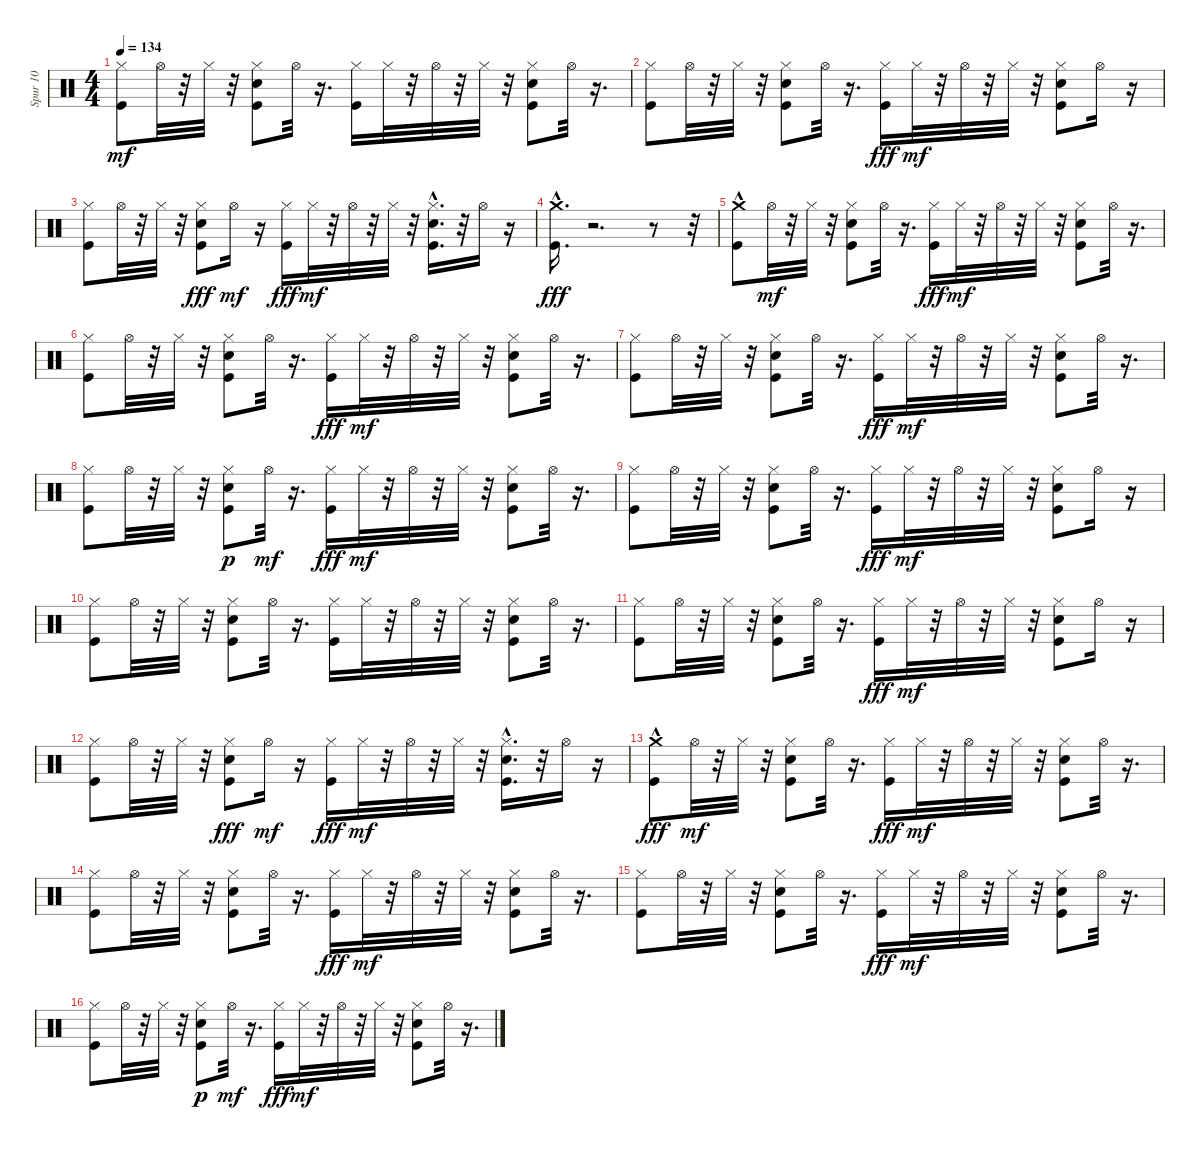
\track ("Spur 10" "Spur 10") {instrument percussion}
\staff {score}
\articulation defaults
\ts (4 4)
\tempo 134
\clef neutral
\ks c
("Kick (hit)" "Hi-Hat (closed)").8{dy mf} "Hi-Hat (open)".32 r.32 "Hi-Hat (closed)".32 r.32 ("Snare (hit) 2" "Kick (hit)" "Hi-Hat (closed)").8 "Hi-Hat (open)".32 r.16{d} ("Kick (hit)" "Hi-Hat (closed)").16 "Hi-Hat (closed)".32 r.32 "Hi-Hat (open)".32 r.32 "Hi-Hat (closed)".32 r.32 ("Snare (hit) 2" "Kick (hit)" "Hi-Hat (closed)").8 "Hi-Hat (open)".32 r.16{d} |
("Kick (hit)" "Hi-Hat (closed)").8 "Hi-Hat (open)".32 r.32 "Hi-Hat (closed)".32 r.32 ("Snare (hit) 2" "Kick (hit)" "Hi-Hat (closed)").8 "Hi-Hat (open)".32 r.16{d} ("Hi-Hat (closed)" "Kick (hit)").16{dy fff} "Hi-Hat (closed)".32{dy mf} r.32 "Hi-Hat (open)".32 r.32 "Hi-Hat (closed)".32 r.32 ("Snare (hit) 2" "Kick (hit)" "Hi-Hat (closed)").8 "Hi-Hat (open)".16 r.16 |
("Kick (hit)" "Hi-Hat (closed)").8 "Hi-Hat (open)".32 r.32 "Hi-Hat (closed)".32 r.32 ("Hi-Hat (closed)" "Snare (hit) 2" "Kick (hit)").8{dy fff} "Hi-Hat (open)".16{dy mf} r.16 ("Hi-Hat (closed)" "Kick (hit)").16{dy fff} "Hi-Hat (closed)".32{dy mf} r.32 "Hi-Hat (open)".32 r.32 "Hi-Hat (closed)".32 r.32 ("Snare (hit) 2" "Kick (hit)"{hac} "Hi-Hat (closed)").16{d} r.32 "Hi-Hat (open)".16 r.16 |
("Crash medium (hit)"{hac} "Kick (hit)"{hac}).16{d dy fff} r.2{d} r.8 r.32 |
("Crash medium (hit)"{hac} "Kick (hit)").8 "Hi-Hat (open)".32{dy mf} r.32 "Hi-Hat (closed)".32 r.32 ("Snare (hit) 2" "Kick (hit)" "Hi-Hat (closed)").8 "Hi-Hat (open)".32 r.16{d} ("Hi-Hat (closed)" "Kick (hit)").16{dy fff} "Hi-Hat (closed)".32{dy mf} r.32 "Hi-Hat (open)".32 r.32 "Hi-Hat (closed)".32 r.32 ("Snare (hit) 2" "Kick (hit)" "Hi-Hat (closed)").8 "Hi-Hat (open)".32 r.16{d} |
("Kick (hit)" "Hi-Hat (closed)").8 "Hi-Hat (open)".32 r.32 "Hi-Hat (closed)".32 r.32 ("Snare (hit) 2" "Kick (hit)" "Hi-Hat (closed)").8 "Hi-Hat (open)".32 r.16{d} ("Hi-Hat (closed)" "Kick (hit)").16{dy fff} "Hi-Hat (closed)".32{dy mf} r.32 "Hi-Hat (open)".32 r.32 "Hi-Hat (closed)".32 r.32 ("Kick (hit)" "Snare (hit) 2" "Hi-Hat (closed)").8 "Hi-Hat (open)".32 r.16{d} |
("Kick (hit)" "Hi-Hat (closed)").8 "Hi-Hat (open)".32 r.32 "Hi-Hat (closed)".32 r.32 ("Kick (hit)" "Snare (hit) 2" "Hi-Hat (closed)").8 "Hi-Hat (open)".32 r.16{d} ("Hi-Hat (closed)" "Kick (hit)").16{dy fff} "Hi-Hat (closed)".32{dy mf} r.32 "Hi-Hat (open)".32 r.32 "Hi-Hat (closed)".32 r.32 ("Snare (hit) 2" "Kick (hit)" "Hi-Hat (closed)").8 "Hi-Hat (open)".32 r.16{d} |
("Kick (hit)" "Hi-Hat (closed)").8 "Hi-Hat (open)".32 r.32 "Hi-Hat (closed)".32 r.32 ("Hi-Hat (closed)" "Kick (hit)" "Snare (hit) 2").8{dy p} "Hi-Hat (open)".32{dy mf} r.16{d} ("Hi-Hat (closed)" "Kick (hit)").16{dy fff} "Hi-Hat (closed)".32{dy mf} r.32 "Hi-Hat (open)".32 r.32 "Hi-Hat (closed)".32 r.32 ("Kick (hit)" "Snare (hit) 2" "Hi-Hat (closed)").8 "Hi-Hat (open)".32 r.16{d} |
("Kick (hit)" "Hi-Hat (closed)").8 "Hi-Hat (open)".32 r.32 "Hi-Hat (closed)".32 r.32 ("Snare (hit) 2" "Kick (hit)" "Hi-Hat (closed)").8 "Hi-Hat (open)".32 r.16{d} ("Hi-Hat (closed)" "Kick (hit)").16{dy fff} "Hi-Hat (closed)".32{dy mf} r.32 "Hi-Hat (open)".32 r.32 "Hi-Hat (closed)".32 r.32 ("Snare (hit) 2" "Kick (hit)" "Hi-Hat (closed)").8 "Hi-Hat (open)".16 r.16 |
("Kick (hit)" "Hi-Hat (closed)").8 "Hi-Hat (open)".32 r.32 "Hi-Hat (closed)".32 r.32 ("Snare (hit) 2" "Kick (hit)" "Hi-Hat (closed)").8 "Hi-Hat (open)".32 r.16{d} ("Kick (hit)" "Hi-Hat (closed)").16 "Hi-Hat (closed)".32 r.32 "Hi-Hat (open)".32 r.32 "Hi-Hat (closed)".32 r.32 ("Snare (hit) 2" "Kick (hit)" "Hi-Hat (closed)").8 "Hi-Hat (open)".32 r.16{d} |
("Kick (hit)" "Hi-Hat (closed)").8 "Hi-Hat (open)".32 r.32 "Hi-Hat (closed)".32 r.32 ("Snare (hit) 2" "Kick (hit)" "Hi-Hat (closed)").8 "Hi-Hat (open)".32 r.16{d} ("Hi-Hat (closed)" "Kick (hit)").16{dy fff} "Hi-Hat (closed)".32{dy mf} r.32 "Hi-Hat (open)".32 r.32 "Hi-Hat (closed)".32 r.32 ("Snare (hit) 2" "Kick (hit)" "Hi-Hat (closed)").8 "Hi-Hat (open)".16 r.16 |
("Kick (hit)" "Hi-Hat (closed)").8 "Hi-Hat (open)".32 r.32 "Hi-Hat (closed)".32 r.32 ("Hi-Hat (closed)" "Snare (hit) 2" "Kick (hit)").8{dy fff} "Hi-Hat (open)".16{dy mf} r.16 ("Hi-Hat (closed)" "Kick (hit)").16{dy fff} "Hi-Hat (closed)".32{dy mf} r.32 "Hi-Hat (open)".32 r.32 "Hi-Hat (closed)".32 r.32 ("Snare (hit) 2" "Kick (hit)"{hac} "Hi-Hat (closed)").16{d} r.32 "Hi-Hat (open)".16 r.16 |
("Crash medium (hit)"{hac} "Kick (hit)").8{dy fff} "Hi-Hat (open)".32{dy mf} r.32 "Hi-Hat (closed)".32 r.32 ("Snare (hit) 2" "Kick (hit)" "Hi-Hat (closed)").8 "Hi-Hat (open)".32 r.16{d} ("Hi-Hat (closed)" "Kick (hit)").16{dy fff} "Hi-Hat (closed)".32{dy mf} r.32 "Hi-Hat (open)".32 r.32 "Hi-Hat (closed)".32 r.32 ("Snare (hit) 2" "Kick (hit)" "Hi-Hat (closed)").8 "Hi-Hat (open)".32 r.16{d} |
("Kick (hit)" "Hi-Hat (closed)").8 "Hi-Hat (open)".32 r.32 "Hi-Hat (closed)".32 r.32 ("Snare (hit) 2" "Kick (hit)" "Hi-Hat (closed)").8 "Hi-Hat (open)".32 r.16{d} ("Hi-Hat (closed)" "Kick (hit)").16{dy fff} "Hi-Hat (closed)".32{dy mf} r.32 "Hi-Hat (open)".32 r.32 "Hi-Hat (closed)".32 r.32 ("Kick (hit)" "Snare (hit) 2" "Hi-Hat (closed)").8 "Hi-Hat (open)".32 r.16{d} |
("Kick (hit)" "Hi-Hat (closed)").8 "Hi-Hat (open)".32 r.32 "Hi-Hat (closed)".32 r.32 ("Kick (hit)" "Snare (hit) 2" "Hi-Hat (closed)").8 "Hi-Hat (open)".32 r.16{d} ("Hi-Hat (closed)" "Kick (hit)").16{dy fff} "Hi-Hat (closed)".32{dy mf} r.32 "Hi-Hat (open)".32 r.32 "Hi-Hat (closed)".32 r.32 ("Snare (hit) 2" "Kick (hit)" "Hi-Hat (closed)").8 "Hi-Hat (open)".32 r.16{d} |
("Kick (hit)" "Hi-Hat (closed)").8 "Hi-Hat (open)".32 r.32 "Hi-Hat (closed)".32 r.32 ("Hi-Hat (closed)" "Kick (hit)" "Snare (hit) 2").8{dy p} "Hi-Hat (open)".32{dy mf} r.16{d} ("Hi-Hat (closed)" "Kick (hit)").16{dy fff} "Hi-Hat (closed)".32{dy mf} r.32 "Hi-Hat (open)".32 r.32 "Hi-Hat (closed)".32 r.32 ("Kick (hit)" "Snare (hit) 2" "Hi-Hat (closed)").8 "Hi-Hat (open)".32 r.16{d}
